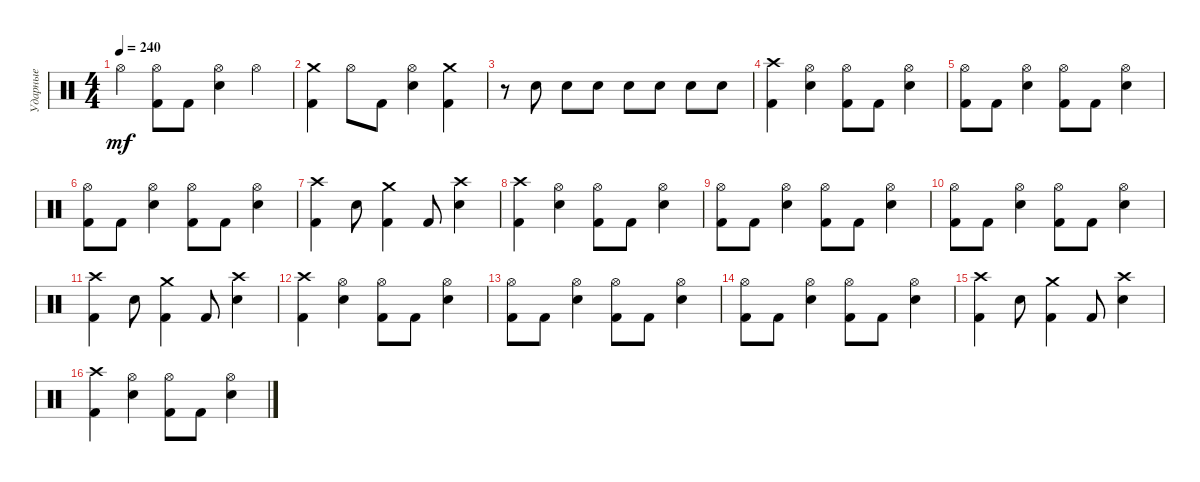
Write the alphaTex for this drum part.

\track ("Ударные" "Ударные") {instrument percussion}
\staff {score}
\articulation defaults
\ts (4 4)
\tempo 240
\clef neutral
\ks c "Hi-Hat (open)".4{dy mf}
("Hi-Hat (open)" "Kick (hit) 2").8 "Kick (hit) 2".8 ("Hi-Hat (open)" "Snare (hit) 2").4 "Hi-Hat (open)".4 |
("Crash medium (hit)" "Kick (hit) 2").4 "Hi-Hat (open)".8 "Kick (hit) 2".8 ("Hi-Hat (open)" "Snare (hit) 2").4 ("Crash medium (hit)" "Kick (hit) 2").4 |
r.8 "Snare (hit) 2".8 "Snare (hit) 2".8 "Snare (hit) 2".8 "Snare (hit) 2".8 "Snare (hit) 2".8 "Snare (hit) 2".8 "Snare (hit) 2".8 |
("Crash high (hit)" "Kick (hit) 2").4 ("Hi-Hat (open)" "Snare (hit) 2").4 ("Hi-Hat (open)" "Kick (hit) 2").8 "Kick (hit) 2".8 ("Hi-Hat (open)" "Snare (hit) 2").4 |
("Hi-Hat (open)" "Kick (hit) 2").8 "Kick (hit) 2".8 ("Hi-Hat (open)" "Snare (hit) 2").4 ("Hi-Hat (open)" "Kick (hit) 2").8 "Kick (hit) 2".8 ("Hi-Hat (open)" "Snare (hit) 2").4 |
("Hi-Hat (open)" "Kick (hit) 2").8 "Kick (hit) 2".8 ("Hi-Hat (open)" "Snare (hit) 2").4 ("Hi-Hat (open)" "Kick (hit) 2").8 "Kick (hit) 2".8 ("Hi-Hat (open)" "Snare (hit) 2").4 |
("Crash high (hit)" "Kick (hit) 2").4 "Snare (hit) 2".8 ("Crash medium (hit)" "Kick (hit) 2").4 "Kick (hit) 2".8 ("Crash high (hit)" "Snare (hit) 2").4 |
("Crash high (hit)" "Kick (hit) 2").4 ("Hi-Hat (open)" "Snare (hit) 2").4 ("Hi-Hat (open)" "Kick (hit) 2").8 "Kick (hit) 2".8 ("Hi-Hat (open)" "Snare (hit) 2").4 |
("Hi-Hat (open)" "Kick (hit) 2").8 "Kick (hit) 2".8 ("Hi-Hat (open)" "Snare (hit) 2").4 ("Hi-Hat (open)" "Kick (hit) 2").8 "Kick (hit) 2".8 ("Hi-Hat (open)" "Snare (hit) 2").4 |
("Hi-Hat (open)" "Kick (hit) 2").8 "Kick (hit) 2".8 ("Hi-Hat (open)" "Snare (hit) 2").4 ("Hi-Hat (open)" "Kick (hit) 2").8 "Kick (hit) 2".8 ("Hi-Hat (open)" "Snare (hit) 2").4 |
("Crash high (hit)" "Kick (hit) 2").4 "Snare (hit) 2".8 ("Crash medium (hit)" "Kick (hit) 2").4 "Kick (hit) 2".8 ("Crash high (hit)" "Snare (hit) 2").4 |
("Crash high (hit)" "Kick (hit) 2").4 ("Hi-Hat (open)" "Snare (hit) 2").4 ("Hi-Hat (open)" "Kick (hit) 2").8 "Kick (hit) 2".8 ("Hi-Hat (open)" "Snare (hit) 2").4 |
("Hi-Hat (open)" "Kick (hit) 2").8 "Kick (hit) 2".8 ("Hi-Hat (open)" "Snare (hit) 2").4 ("Hi-Hat (open)" "Kick (hit) 2").8 "Kick (hit) 2".8 ("Hi-Hat (open)" "Snare (hit) 2").4 |
("Hi-Hat (open)" "Kick (hit) 2").8 "Kick (hit) 2".8 ("Hi-Hat (open)" "Snare (hit) 2").4 ("Hi-Hat (open)" "Kick (hit) 2").8 "Kick (hit) 2".8 ("Hi-Hat (open)" "Snare (hit) 2").4 |
("Crash high (hit)" "Kick (hit) 2").4 "Snare (hit) 2".8 ("Crash medium (hit)" "Kick (hit) 2").4 "Kick (hit) 2".8 ("Crash high (hit)" "Snare (hit) 2").4 |
("Crash high (hit)" "Kick (hit) 2").4 ("Hi-Hat (open)" "Snare (hit) 2").4 ("Hi-Hat (open)" "Kick (hit) 2").8 "Kick (hit) 2".8 ("Hi-Hat (open)" "Snare (hit) 2").4
